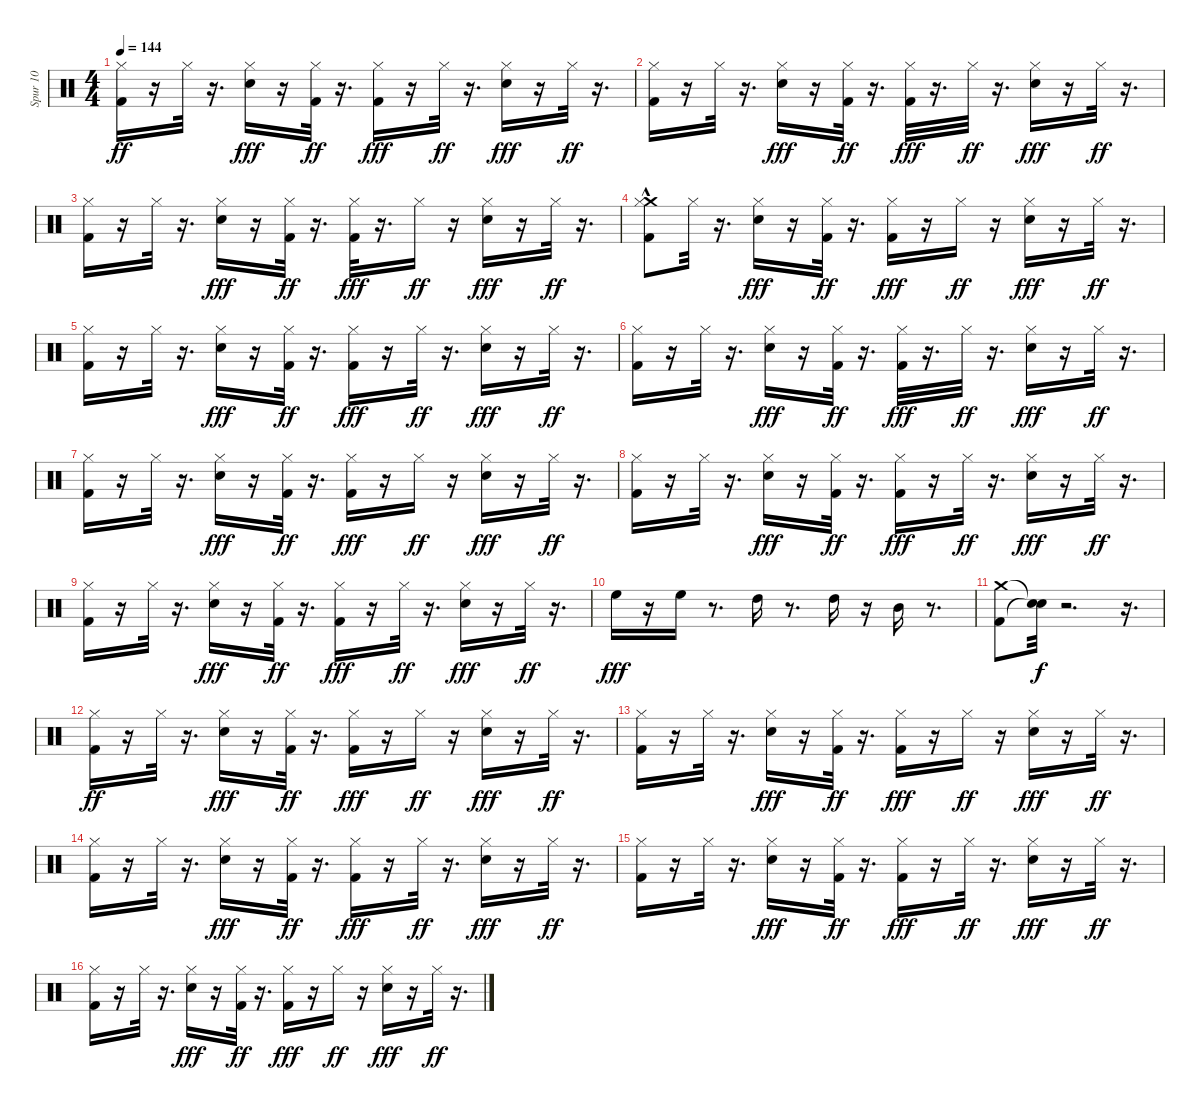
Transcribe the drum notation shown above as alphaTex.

\track ("Spur 10" "Spur 10") {instrument percussion}
\staff {score}
\articulation defaults
\ts (4 4)
\tempo 144
\clef neutral
\ks c
("Kick (hit) 2" "Hi-Hat (closed)").16{dy ff} r.16 "Hi-Hat (closed)".32 r.16{d} ("Snare (hit) 2" "Hi-Hat (closed)").16{dy fff} r.16 ("Kick (hit) 2" "Hi-Hat (closed)").32{dy ff} r.16{d} ("Kick (hit) 2" "Hi-Hat (closed)").16{dy fff} r.16 "Hi-Hat (closed)".32{dy ff} r.16{d} ("Snare (hit) 2" "Hi-Hat (closed)").16{dy fff} r.16 "Hi-Hat (closed)".32{dy ff} r.16{d} |
("Kick (hit) 2" "Hi-Hat (closed)").16 r.16 "Hi-Hat (closed)".32 r.16{d} ("Snare (hit) 2" "Hi-Hat (closed)").16{dy fff} r.16 ("Kick (hit) 2" "Hi-Hat (closed)").32{dy ff} r.16{d} ("Kick (hit) 2" "Hi-Hat (closed)").32{dy fff} r.16{d} "Hi-Hat (closed)".32{dy ff} r.16{d} ("Snare (hit) 2" "Hi-Hat (closed)").16{dy fff} r.16 "Hi-Hat (closed)".32{dy ff} r.16{d} |
("Kick (hit) 2" "Hi-Hat (closed)").16 r.16 "Hi-Hat (closed)".32 r.16{d} ("Snare (hit) 2" "Hi-Hat (closed)").16{dy fff} r.16 ("Kick (hit) 2" "Hi-Hat (closed)").32{dy ff} r.16{d} ("Kick (hit) 2" "Hi-Hat (closed)").32{dy fff} r.16{d} "Hi-Hat (closed)".16{dy ff} r.16 ("Snare (hit) 2" "Hi-Hat (closed)").16{dy fff} r.16 "Hi-Hat (closed)".32{dy ff} r.16{d} |
("Crash medium (hit)"{hac} "Kick (hit) 2" "Hi-Hat (closed)").8 "Hi-Hat (closed)".32 r.16{d} ("Snare (hit) 2" "Hi-Hat (closed)").16{dy fff} r.16 ("Kick (hit) 2" "Hi-Hat (closed)").32{dy ff} r.16{d} ("Kick (hit) 2" "Hi-Hat (closed)").16{dy fff} r.16 "Hi-Hat (closed)".16{dy ff} r.16 ("Snare (hit) 2" "Hi-Hat (closed)").16{dy fff} r.16 "Hi-Hat (closed)".32{dy ff} r.16{d} |
("Kick (hit) 2" "Hi-Hat (closed)").16 r.16 "Hi-Hat (closed)".32 r.16{d} ("Snare (hit) 2" "Hi-Hat (closed)").16{dy fff} r.16 ("Kick (hit) 2" "Hi-Hat (closed)").32{dy ff} r.16{d} ("Kick (hit) 2" "Hi-Hat (closed)").16{dy fff} r.16 "Hi-Hat (closed)".32{dy ff} r.16{d} ("Snare (hit) 2" "Hi-Hat (closed)").16{dy fff} r.16 "Hi-Hat (closed)".32{dy ff} r.16{d} |
("Kick (hit) 2" "Hi-Hat (closed)").16 r.16 "Hi-Hat (closed)".32 r.16{d} ("Snare (hit) 2" "Hi-Hat (closed)").16{dy fff} r.16 ("Kick (hit) 2" "Hi-Hat (closed)").32{dy ff} r.16{d} ("Kick (hit) 2" "Hi-Hat (closed)").32{dy fff} r.16{d} "Hi-Hat (closed)".32{dy ff} r.16{d} ("Snare (hit) 2" "Hi-Hat (closed)").16{dy fff} r.16 "Hi-Hat (closed)".32{dy ff} r.16{d} |
("Kick (hit) 2" "Hi-Hat (closed)").16 r.16 "Hi-Hat (closed)".32 r.16{d} ("Snare (hit) 2" "Hi-Hat (closed)").16{dy fff} r.16 ("Kick (hit) 2" "Hi-Hat (closed)").32{dy ff} r.16{d} ("Kick (hit) 2" "Hi-Hat (closed)").16{dy fff} r.16 "Hi-Hat (closed)".16{dy ff} r.16 ("Snare (hit) 2" "Hi-Hat (closed)").16{dy fff} r.16 "Hi-Hat (closed)".32{dy ff} r.16{d} |
("Kick (hit) 2" "Hi-Hat (closed)").16 r.16 "Hi-Hat (closed)".32 r.16{d} ("Snare (hit) 2" "Hi-Hat (closed)").16{dy fff} r.16 ("Kick (hit) 2" "Hi-Hat (closed)").32{dy ff} r.16{d} ("Kick (hit) 2" "Hi-Hat (closed)").16{dy fff} r.16 "Hi-Hat (closed)".32{dy ff} r.16{d} ("Snare (hit) 2" "Hi-Hat (closed)").16{dy fff} r.16 "Hi-Hat (closed)".32{dy ff} r.16{d} |
("Kick (hit) 2" "Hi-Hat (closed)").16 r.16 "Hi-Hat (closed)".32 r.16{d} ("Snare (hit) 2" "Hi-Hat (closed)").16{dy fff} r.16 ("Kick (hit) 2" "Hi-Hat (closed)").32{dy ff} r.16{d} ("Kick (hit) 2" "Hi-Hat (closed)").16{dy fff} r.16 "Hi-Hat (closed)".32{dy ff} r.16{d} ("Snare (hit) 2" "Hi-Hat (closed)").16{dy fff} r.16 "Hi-Hat (closed)".32{dy ff} r.16{d} |
"High Floor Tom (hit)".16{dy fff} r.16 "High Floor Tom (hit)".16 r.8{d} "High Tom (hit)".16 r.8{d} "High Tom (hit)".16 r.16 "Mid Tom (hit)".16 r.8{d} |
("Crash medium (hit)" "Kick (hit) 2").8 ("Snare (hit)"{t} "Snare (hit)"{t}).32{dy f} r.2{d} r.16{d} |
("Kick (hit) 2" "Hi-Hat (closed)").16{dy ff} r.16 "Hi-Hat (closed)".32 r.16{d} ("Snare (hit) 2" "Hi-Hat (closed)").16{dy fff} r.16 ("Kick (hit) 2" "Hi-Hat (closed)").32{dy ff} r.16{d} ("Kick (hit) 2" "Hi-Hat (closed)").16{dy fff} r.16 "Hi-Hat (closed)".16{dy ff} r.16 ("Snare (hit) 2" "Hi-Hat (closed)").16{dy fff} r.16 "Hi-Hat (closed)".32{dy ff} r.16{d} |
("Kick (hit) 2" "Hi-Hat (closed)").16 r.16 "Hi-Hat (closed)".32 r.16{d} ("Snare (hit) 2" "Hi-Hat (closed)").16{dy fff} r.16 ("Kick (hit) 2" "Hi-Hat (closed)").32{dy ff} r.16{d} ("Kick (hit) 2" "Hi-Hat (closed)").16{dy fff} r.16 "Hi-Hat (closed)".16{dy ff} r.16 ("Snare (hit) 2" "Hi-Hat (closed)").16{dy fff} r.16 "Hi-Hat (closed)".32{dy ff} r.16{d} |
("Kick (hit) 2" "Hi-Hat (closed)").16 r.16 "Hi-Hat (closed)".32 r.16{d} ("Snare (hit) 2" "Hi-Hat (closed)").16{dy fff} r.16 ("Kick (hit) 2" "Hi-Hat (closed)").32{dy ff} r.16{d} ("Kick (hit) 2" "Hi-Hat (closed)").16{dy fff} r.16 "Hi-Hat (closed)".32{dy ff} r.16{d} ("Snare (hit) 2" "Hi-Hat (closed)").16{dy fff} r.16 "Hi-Hat (closed)".32{dy ff} r.16{d} |
("Kick (hit) 2" "Hi-Hat (closed)").16 r.16 "Hi-Hat (closed)".32 r.16{d} ("Snare (hit) 2" "Hi-Hat (closed)").16{dy fff} r.16 ("Kick (hit) 2" "Hi-Hat (closed)").32{dy ff} r.16{d} ("Kick (hit) 2" "Hi-Hat (closed)").16{dy fff} r.16 "Hi-Hat (closed)".32{dy ff} r.16{d} ("Snare (hit) 2" "Hi-Hat (closed)").16{dy fff} r.16 "Hi-Hat (closed)".32{dy ff} r.16{d} |
("Kick (hit) 2" "Hi-Hat (closed)").16 r.16 "Hi-Hat (closed)".32 r.16{d} ("Snare (hit) 2" "Hi-Hat (closed)").16{dy fff} r.16 ("Kick (hit) 2" "Hi-Hat (closed)").32{dy ff} r.16{d} ("Kick (hit) 2" "Hi-Hat (closed)").16{dy fff} r.16 "Hi-Hat (closed)".16{dy ff} r.16 ("Snare (hit) 2" "Hi-Hat (closed)").16{dy fff} r.16 "Hi-Hat (closed)".32{dy ff} r.16{d}
